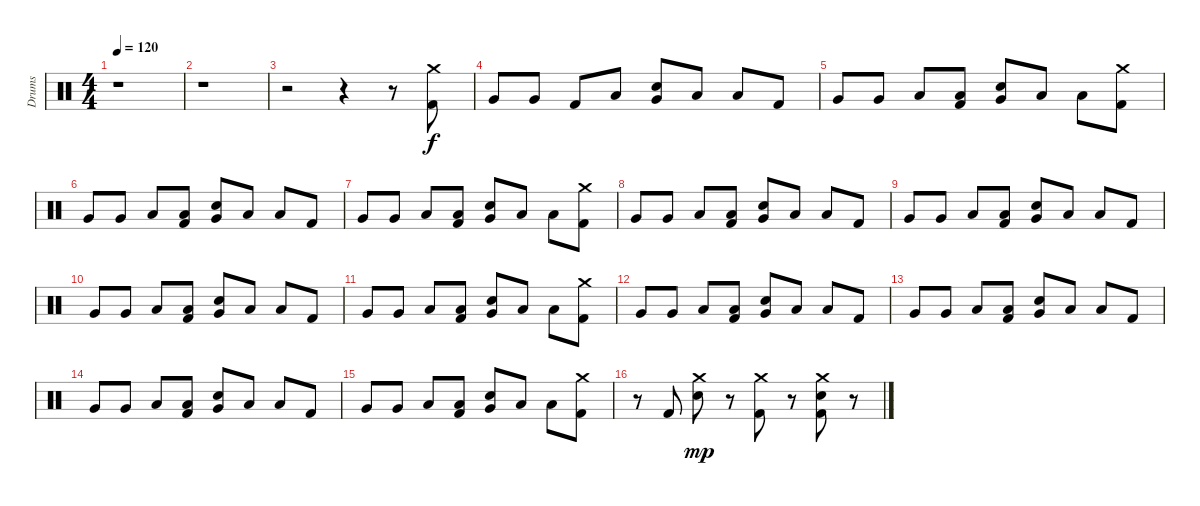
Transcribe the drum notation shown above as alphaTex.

\track ("Drums" "Drums") {instrument percussion}
\staff {score}
\articulation defaults
\ts (4 4)
\tempo 120
\clef neutral
\ks c
r.1{dy f} |
r.1 |
r.2 r.4 r.8 ("Crash medium (hit)" "Kick (hit) 2").8 |
"Very Low Tom (hit)".8 "Very Low Tom (hit)".8 "Kick (hit) 2".8 "Low Tom (hit)".8 ("Electric Snare (hit)" "Very Low Tom (hit)").8 "Low Floor Tom (hit)".8 "Low Floor Tom (hit)".8 "Kick (hit) 2".8 |
"Very Low Tom (hit)".8 "Very Low Tom (hit)".8 "Low Floor Tom (hit)".8 ("Low Tom (hit)" "Kick (hit) 2").8 ("Electric Snare (hit)" "Very Low Tom (hit)").8 "Low Floor Tom (hit)".8 "Low Floor Tom (hit)".8 ("Crash medium (hit)" "Kick (hit) 2").8 |
"Very Low Tom (hit)".8 "Very Low Tom (hit)".8 "Low Floor Tom (hit)".8 ("Low Tom (hit)" "Kick (hit) 2").8 ("Electric Snare (hit)" "Very Low Tom (hit)").8 "Low Floor Tom (hit)".8 "Low Floor Tom (hit)".8 "Kick (hit) 2".8 |
"Very Low Tom (hit)".8 "Very Low Tom (hit)".8 "Low Floor Tom (hit)".8 ("Low Tom (hit)" "Kick (hit) 2").8 ("Electric Snare (hit)" "Very Low Tom (hit)").8 "Low Floor Tom (hit)".8 "Low Floor Tom (hit)".8 ("Crash medium (hit)" "Kick (hit) 2").8 |
"Very Low Tom (hit)".8 "Very Low Tom (hit)".8 "Low Floor Tom (hit)".8 ("Low Tom (hit)" "Kick (hit) 2").8 ("Electric Snare (hit)" "Very Low Tom (hit)").8 "Low Floor Tom (hit)".8 "Low Floor Tom (hit)".8 "Kick (hit) 2".8 |
"Very Low Tom (hit)".8 "Very Low Tom (hit)".8 "Low Floor Tom (hit)".8 ("Low Tom (hit)" "Kick (hit) 2").8 ("Electric Snare (hit)" "Very Low Tom (hit)").8 "Low Floor Tom (hit)".8 "Low Floor Tom (hit)".8 "Kick (hit) 2".8 |
"Very Low Tom (hit)".8 "Very Low Tom (hit)".8 "Low Floor Tom (hit)".8 ("Low Tom (hit)" "Kick (hit) 2").8 ("Electric Snare (hit)" "Very Low Tom (hit)").8 "Low Floor Tom (hit)".8 "Low Floor Tom (hit)".8 "Kick (hit) 2".8 |
"Very Low Tom (hit)".8 "Very Low Tom (hit)".8 "Low Floor Tom (hit)".8 ("Low Tom (hit)" "Kick (hit) 2").8 ("Electric Snare (hit)" "Very Low Tom (hit)").8 "Low Floor Tom (hit)".8 "Low Floor Tom (hit)".8 ("Crash medium (hit)" "Kick (hit) 2").8 |
"Very Low Tom (hit)".8 "Very Low Tom (hit)".8 "Low Floor Tom (hit)".8 ("Low Tom (hit)" "Kick (hit) 2").8 ("Electric Snare (hit)" "Very Low Tom (hit)").8 "Low Floor Tom (hit)".8 "Low Floor Tom (hit)".8 "Kick (hit) 2".8 |
"Very Low Tom (hit)".8 "Very Low Tom (hit)".8 "Low Floor Tom (hit)".8 ("Low Tom (hit)" "Kick (hit) 2").8 ("Electric Snare (hit)" "Very Low Tom (hit)").8 "Low Floor Tom (hit)".8 "Low Floor Tom (hit)".8 "Kick (hit) 2".8 |
"Very Low Tom (hit)".8 "Very Low Tom (hit)".8 "Low Floor Tom (hit)".8 ("Low Tom (hit)" "Kick (hit) 2").8 ("Electric Snare (hit)" "Very Low Tom (hit)").8 "Low Floor Tom (hit)".8 "Low Floor Tom (hit)".8 "Kick (hit) 2".8 |
"Very Low Tom (hit)".8 "Very Low Tom (hit)".8 "Low Floor Tom (hit)".8 ("Low Tom (hit)" "Kick (hit) 2").8 ("Electric Snare (hit)" "Very Low Tom (hit)").8 "Low Floor Tom (hit)".8 "Low Floor Tom (hit)".8 ("Crash medium (hit)" "Kick (hit) 2").8 |
r.8 "Kick (hit) 2".8 ("Crash medium (hit)" "Electric Snare (hit)").8{dy mp} r.8 ("Crash medium (hit)" "Kick (hit) 2").8 r.8 ("Crash medium (hit)" "Electric Snare (hit)" "Kick (hit) 2").8 r.8
